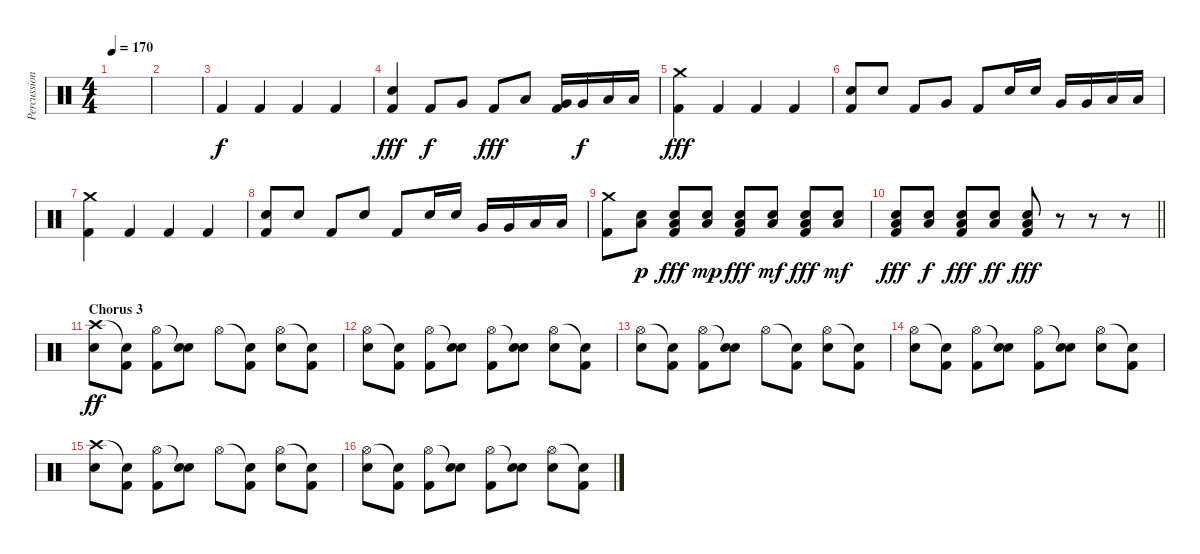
\track ("Percussion" "Percussion") {instrument percussion}
\staff {score}
\articulation defaults
\ts (4 4)
\tempo 170
\clef neutral
\ks c
|
|
"Kick (hit) 2".4 "Kick (hit) 2".4 "Kick (hit) 2".4 "Kick (hit) 2".4 |
("Electric Snare (hit)" "Kick (hit) 2").4{dy fff} "Kick (hit) 2".8{dy f} "Very Low Tom (hit)".8 "Kick (hit) 2".8{dy fff} "Low Floor Tom (hit)".8 ("Very Low Tom (hit)" "Kick (hit) 2").16 "Very Low Tom (hit)".16{dy f} "Low Floor Tom (hit)".16 "Low Floor Tom (hit)".16 |
("Crash medium (hit)" "Kick (hit) 2").4{dy fff} "Kick (hit) 2".4 "Kick (hit) 2".4 "Kick (hit) 2".4 |
("Electric Snare (hit)" "Kick (hit) 2").8 "Electric Snare (hit)".8 "Kick (hit) 2".8 "Very Low Tom (hit)".8 "Kick (hit) 2".8 "Electric Snare (hit)".16 "Electric Snare (hit)".16 "Very Low Tom (hit)".16 "Very Low Tom (hit)".16 "Low Floor Tom (hit)".16 "Low Floor Tom (hit)".16 |
("Crash medium (hit)" "Kick (hit) 2").4 "Kick (hit) 2".4 "Kick (hit) 2".4 "Kick (hit) 2".4 |
("Electric Snare (hit)" "Kick (hit) 2").8 "Electric Snare (hit)".8 "Kick (hit) 2".8 "Electric Snare (hit)".8 "Kick (hit) 2".8 "Electric Snare (hit)".16 "Electric Snare (hit)".16 "Very Low Tom (hit)".16 "Very Low Tom (hit)".16 "Low Floor Tom (hit)".16 "Low Floor Tom (hit)".16 |
("Crash medium (hit)" "Kick (hit) 2").8 ("Electric Snare (hit)" "Low Floor Tom (hit)").8{dy p} ("Electric Snare (hit)" "Low Floor Tom (hit)" "Kick (hit) 2").8{dy fff} ("Electric Snare (hit)" "Low Floor Tom (hit)").8{dy mp} ("Electric Snare (hit)" "Low Floor Tom (hit)" "Kick (hit) 2").8{dy fff} ("Electric Snare (hit)" "Low Floor Tom (hit)").8{dy mf} ("Electric Snare (hit)" "Low Floor Tom (hit)" "Kick (hit) 2").8{dy fff} ("Electric Snare (hit)" "Low Floor Tom (hit)").8{dy mf} |
\barLineRight lightlight
("Electric Snare (hit)" "Low Floor Tom (hit)" "Kick (hit) 2").8{dy fff} ("Electric Snare (hit)" "Low Floor Tom (hit)").8{dy f} ("Electric Snare (hit)" "Low Floor Tom (hit)" "Kick (hit) 2").8{dy fff} ("Electric Snare (hit)" "Low Floor Tom (hit)").8{dy ff} ("Electric Snare (hit)" "Low Floor Tom (hit)" "Kick (hit) 2").8{dy fff} r.8 r.8 r.8 |
\section ("" "Chorus 3")
("Crash high (hit)" "Electric Snare (hit)").8{dy ff} ("Snare (hit)"{t} "Kick (hit) 2").8 ("Hi-Hat (open)" "Kick (hit) 2").8 ("Snare (hit)"{t} "Electric Snare (hit)").8 "Hi-Hat (open)".8 ("Snare (hit)"{t} "Kick (hit) 2").8 ("Hi-Hat (open)" "Electric Snare (hit)").8 ("Snare (hit)"{t} "Kick (hit) 2").8 |
("Hi-Hat (open)" "Electric Snare (hit)").8 ("Snare (hit)"{t} "Kick (hit) 2").8 ("Hi-Hat (open)" "Kick (hit) 2").8 ("Snare (hit)"{t} "Electric Snare (hit)").8 ("Hi-Hat (open)" "Kick (hit) 2").8 ("Snare (hit)"{t} "Electric Snare (hit)").8 ("Hi-Hat (open)" "Electric Snare (hit)").8 ("Snare (hit)"{t} "Kick (hit) 2").8 |
("Hi-Hat (open)" "Electric Snare (hit)").8 ("Snare (hit)"{t} "Kick (hit) 2").8 ("Hi-Hat (open)" "Kick (hit) 2").8 ("Snare (hit)"{t} "Electric Snare (hit)").8 "Hi-Hat (open)".8 ("Snare (hit)"{t} "Kick (hit) 2").8 ("Hi-Hat (open)" "Electric Snare (hit)").8 ("Snare (hit)"{t} "Kick (hit) 2").8 |
("Hi-Hat (open)" "Electric Snare (hit)").8 ("Snare (hit)"{t} "Kick (hit) 2").8 ("Hi-Hat (open)" "Kick (hit) 2").8 ("Snare (hit)"{t} "Electric Snare (hit)").8 ("Hi-Hat (open)" "Kick (hit) 2").8 ("Snare (hit)"{t} "Electric Snare (hit)").8 ("Hi-Hat (open)" "Electric Snare (hit)").8 ("Snare (hit)"{t} "Kick (hit) 2").8 |
("Crash high (hit)" "Electric Snare (hit)").8 ("Snare (hit)"{t} "Kick (hit) 2").8 ("Hi-Hat (open)" "Kick (hit) 2").8 ("Snare (hit)"{t} "Electric Snare (hit)").8 "Hi-Hat (open)".8 ("Snare (hit)"{t} "Kick (hit) 2").8 ("Hi-Hat (open)" "Electric Snare (hit)").8 ("Snare (hit)"{t} "Kick (hit) 2").8 |
("Hi-Hat (open)" "Electric Snare (hit)").8 ("Snare (hit)"{t} "Kick (hit) 2").8 ("Hi-Hat (open)" "Kick (hit) 2").8 ("Snare (hit)"{t} "Electric Snare (hit)").8 ("Hi-Hat (open)" "Kick (hit) 2").8 ("Snare (hit)"{t} "Electric Snare (hit)").8 ("Hi-Hat (open)" "Electric Snare (hit)").8 ("Snare (hit)"{t} "Kick (hit) 2").8
